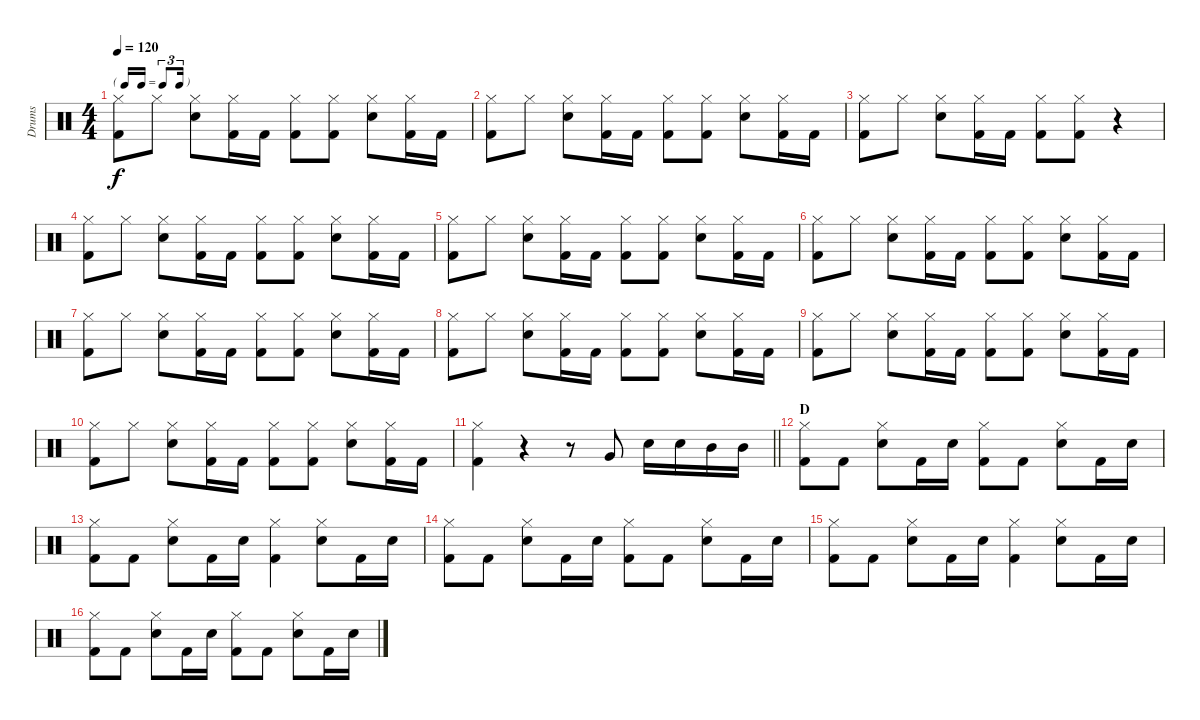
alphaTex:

\track ("Drums" "Drums") {instrument percussion}
\staff {score}
\articulation defaults
\ts (4 4)
\tf triplet16th
\tempo 120
\clef neutral
\ks c
("Hi-Hat (closed)" "Kick (hit) 2").8{dy f} "Hi-Hat (closed)".8 ("Hi-Hat (closed)" "Snare (hit) 2").8 ("Hi-Hat (closed)" "Kick (hit) 2").16 "Kick (hit) 2".16 ("Hi-Hat (closed)" "Kick (hit) 2").8 ("Hi-Hat (closed)" "Kick (hit) 2").8 ("Hi-Hat (closed)" "Snare (hit) 2").8 ("Hi-Hat (closed)" "Kick (hit) 2").16 "Kick (hit) 2".16 |
("Hi-Hat (closed)" "Kick (hit) 2").8 "Hi-Hat (closed)".8 ("Hi-Hat (closed)" "Snare (hit) 2").8 ("Hi-Hat (closed)" "Kick (hit) 2").16 "Kick (hit) 2".16 ("Hi-Hat (closed)" "Kick (hit) 2").8 ("Hi-Hat (closed)" "Kick (hit) 2").8 ("Hi-Hat (closed)" "Snare (hit) 2").8 ("Hi-Hat (closed)" "Kick (hit) 2").16 "Kick (hit) 2".16 |
("Hi-Hat (closed)" "Kick (hit) 2").8 "Hi-Hat (closed)".8 ("Hi-Hat (closed)" "Snare (hit) 2").8 ("Hi-Hat (closed)" "Kick (hit) 2").16 "Kick (hit) 2".16 ("Hi-Hat (closed)" "Kick (hit) 2").8 ("Hi-Hat (closed)" "Kick (hit) 2").8 r.4 |
("Hi-Hat (closed)" "Kick (hit) 2").8 "Hi-Hat (closed)".8 ("Hi-Hat (closed)" "Snare (hit) 2").8 ("Hi-Hat (closed)" "Kick (hit) 2").16 "Kick (hit) 2".16 ("Hi-Hat (closed)" "Kick (hit) 2").8 ("Hi-Hat (closed)" "Kick (hit) 2").8 ("Hi-Hat (closed)" "Snare (hit) 2").8 ("Hi-Hat (closed)" "Kick (hit) 2").16 "Kick (hit) 2".16 |
("Hi-Hat (closed)" "Kick (hit) 2").8 "Hi-Hat (closed)".8 ("Hi-Hat (closed)" "Snare (hit) 2").8 ("Hi-Hat (closed)" "Kick (hit) 2").16 "Kick (hit) 2".16 ("Hi-Hat (closed)" "Kick (hit) 2").8 ("Hi-Hat (closed)" "Kick (hit) 2").8 ("Hi-Hat (closed)" "Snare (hit) 2").8 ("Hi-Hat (closed)" "Kick (hit) 2").16 "Kick (hit) 2".16 |
("Hi-Hat (closed)" "Kick (hit) 2").8 "Hi-Hat (closed)".8 ("Hi-Hat (closed)" "Snare (hit) 2").8 ("Hi-Hat (closed)" "Kick (hit) 2").16 "Kick (hit) 2".16 ("Hi-Hat (closed)" "Kick (hit) 2").8 ("Hi-Hat (closed)" "Kick (hit) 2").8 ("Hi-Hat (closed)" "Snare (hit) 2").8 ("Hi-Hat (closed)" "Kick (hit) 2").16 "Kick (hit) 2".16 |
("Hi-Hat (closed)" "Kick (hit) 2").8 "Hi-Hat (closed)".8 ("Hi-Hat (closed)" "Snare (hit) 2").8 ("Hi-Hat (closed)" "Kick (hit) 2").16 "Kick (hit) 2".16 ("Hi-Hat (closed)" "Kick (hit) 2").8 ("Hi-Hat (closed)" "Kick (hit) 2").8 ("Hi-Hat (closed)" "Snare (hit) 2").8 ("Hi-Hat (closed)" "Kick (hit) 2").16 "Kick (hit) 2".16 |
("Hi-Hat (closed)" "Kick (hit) 2").8 "Hi-Hat (closed)".8 ("Hi-Hat (closed)" "Snare (hit) 2").8 ("Hi-Hat (closed)" "Kick (hit) 2").16 "Kick (hit) 2".16 ("Hi-Hat (closed)" "Kick (hit) 2").8 ("Hi-Hat (closed)" "Kick (hit) 2").8 ("Hi-Hat (closed)" "Snare (hit) 2").8 ("Hi-Hat (closed)" "Kick (hit) 2").16 "Kick (hit) 2".16 |
("Hi-Hat (closed)" "Kick (hit) 2").8 "Hi-Hat (closed)".8 ("Hi-Hat (closed)" "Snare (hit) 2").8 ("Hi-Hat (closed)" "Kick (hit) 2").16 "Kick (hit) 2".16 ("Hi-Hat (closed)" "Kick (hit) 2").8 ("Hi-Hat (closed)" "Kick (hit) 2").8 ("Hi-Hat (closed)" "Snare (hit) 2").8 ("Hi-Hat (closed)" "Kick (hit) 2").16 "Kick (hit) 2".16 |
("Hi-Hat (closed)" "Kick (hit) 2").8 "Hi-Hat (closed)".8 ("Hi-Hat (closed)" "Snare (hit) 2").8 ("Hi-Hat (closed)" "Kick (hit) 2").16 "Kick (hit) 2".16 ("Hi-Hat (closed)" "Kick (hit) 2").8 ("Hi-Hat (closed)" "Kick (hit) 2").8 ("Hi-Hat (closed)" "Snare (hit) 2").8 ("Hi-Hat (closed)" "Kick (hit) 2").16 "Kick (hit) 2".16 |
\barLineRight lightlight
("Hi-Hat (closed)" "Kick (hit) 2").4 r.4 r.8 "Very Low Tom (hit)".8 "Snare (hit) 2".16 "Snare (hit) 2".16 "Mid Tom (hit)".16 "Mid Tom (hit)".16 |
\section ("" "D")
("Hi-Hat (closed)" "Kick (hit) 2").8 "Kick (hit) 2".8 ("Hi-Hat (closed)" "Snare (hit) 2").8 "Kick (hit) 2".16 "Snare (hit) 2".16 ("Hi-Hat (closed)" "Kick (hit) 2").8 "Kick (hit) 2".8 ("Hi-Hat (closed)" "Snare (hit) 2").8 "Kick (hit) 2".16 "Snare (hit) 2".16 |
("Hi-Hat (closed)" "Kick (hit) 2").8 "Kick (hit) 2".8 ("Hi-Hat (closed)" "Snare (hit) 2").8 "Kick (hit) 2".16 "Snare (hit) 2".16 ("Hi-Hat (closed)" "Kick (hit) 2").4 ("Hi-Hat (closed)" "Snare (hit) 2").8 "Kick (hit) 2".16 "Snare (hit) 2".16 |
("Hi-Hat (closed)" "Kick (hit) 2").8 "Kick (hit) 2".8 ("Hi-Hat (closed)" "Snare (hit) 2").8 "Kick (hit) 2".16 "Snare (hit) 2".16 ("Hi-Hat (closed)" "Kick (hit) 2").8 "Kick (hit) 2".8 ("Hi-Hat (closed)" "Snare (hit) 2").8 "Kick (hit) 2".16 "Snare (hit) 2".16 |
("Hi-Hat (closed)" "Kick (hit) 2").8 "Kick (hit) 2".8 ("Hi-Hat (closed)" "Snare (hit) 2").8 "Kick (hit) 2".16 "Snare (hit) 2".16 ("Hi-Hat (closed)" "Kick (hit) 2").4 ("Hi-Hat (closed)" "Snare (hit) 2").8 "Kick (hit) 2".16 "Snare (hit) 2".16 |
("Hi-Hat (closed)" "Kick (hit) 2").8 "Kick (hit) 2".8 ("Hi-Hat (closed)" "Snare (hit) 2").8 "Kick (hit) 2".16 "Snare (hit) 2".16 ("Hi-Hat (closed)" "Kick (hit) 2").8 "Kick (hit) 2".8 ("Hi-Hat (closed)" "Snare (hit) 2").8 "Kick (hit) 2".16 "Snare (hit) 2".16
